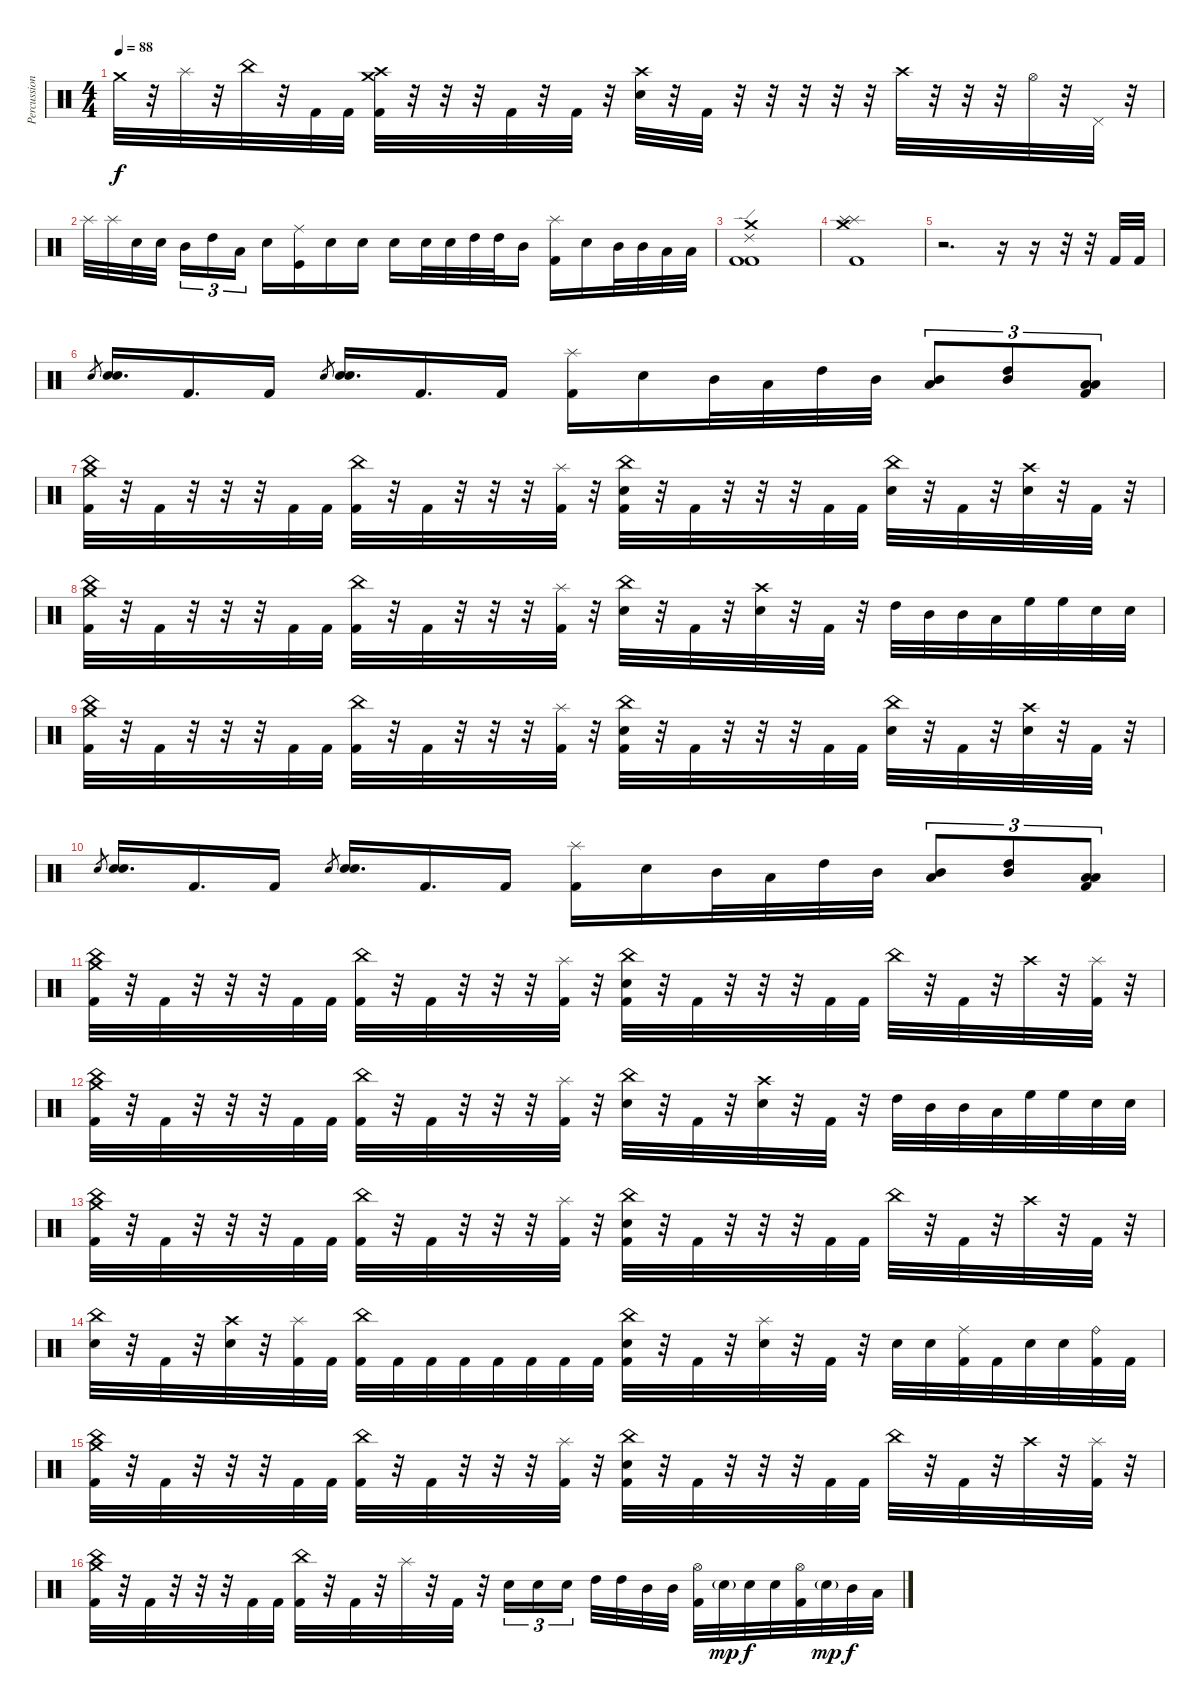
\track ("Percussion" "Percussion") {instrument percussion}
\staff {score}
\articulation defaults
\ts (4 4)
\tempo 88
\clef neutral
\ks c "Crash medium (hit)".32{dy f}
r.32 "Splash (hit)".32 r.32 "China (hit)".32 r.32 "Kick (hit) 2".32 "Kick (hit) 2".32 ("Crash high (hit)" "Crash medium (hit)" "Kick (hit) 2").32 r.32 r.32 r.32 "Kick (hit) 2".32 r.32 "Kick (hit) 2".32 r.32 ("Crash high (hit)" "Snare (hit) 2").32 r.32 "Kick (hit) 2".32 r.32 r.32 r.32 r.32 r.32 "Crash high (hit)".32 r.32 r.32 r.32 "Hi-Hat (open)".32 r.32 "Pedal Hi-Hat (hit)".32 r.32 |
"Splash (hit)".32 "Splash (hit)".32 "Snare (hit) 2".32 "Snare (hit) 2".32{beam splitsecondary} "Mid Tom (hit)".16{tu (3 2)} "High Tom (hit)".16{tu (3 2)} "Low Tom (hit)".16{tu (3 2)} "Snare (hit) 2".16 ("Ride (middle)" "Kick (hit)").16 "Snare (hit) 2".16 "Snare (hit) 2".16 "Snare (hit) 2".16 "Snare (hit) 2".32 "Snare (hit) 2".32 "High Tom (hit)".32 "High Tom (hit)".32 "Mid Tom (hit)".16 ("Splash (hit)" "Kick (hit) 2").16 "Snare (hit) 2".16 "Mid Tom (hit)".32 "Mid Tom (hit)".32 "Low Tom (hit)".32 "Low Tom (hit)".32 |
("Crash medium (hit)" "Ride (edge) 2" "Kick (hit) 2" "Kick (hit) 2").1 |
("Splash (hit)" "Splash (hit)" "Crash medium (hit)" "Kick (hit) 2").1 |
r.2{d} r.16 r.16 r.32 r.32 "Kick (hit) 2".32 "Kick (hit) 2".32 |
"Snare (hit) 2"{sl}.8{gr} ("Snare (hit) 2" "Snare (hit) 2").16{d} "Kick (hit) 2".16{d} "Kick (hit) 2".16 "Snare (hit) 2"{sl}.8{gr} ("Snare (hit) 2" "Snare (hit) 2").16{d} "Kick (hit) 2".16{d} "Kick (hit) 2".16 ("Splash (hit)" "Kick (hit) 2").16 "Snare (hit) 2".16 "Mid Tom (hit)".32 "Low Tom (hit)".32 "High Tom (hit)".32 "Mid Tom (hit)".32 ("Mid Tom (hit)" "Low Tom (hit)").8{tu (3 2)} ("Mid Tom (hit)" "High Tom (hit)").8{tu (3 2)} ("Low Floor Tom (hit)" "Low Tom (hit)" "Kick (hit) 2").8{tu (3 2)} |
("China (hit)" "Crash medium (hit)" "Kick (hit) 2").32 r.32 "Kick (hit) 2".32 r.32 r.32 r.32 "Kick (hit) 2".32 "Kick (hit) 2".32 ("China (hit)" "Kick (hit) 2").32 r.32 "Kick (hit) 2".32 r.32 r.32 r.32 ("Splash (hit)" "Kick (hit) 2").32 r.32 ("China (hit)" "Snare (hit) 2" "Kick (hit) 2").32 r.32 "Kick (hit) 2".32 r.32 r.32 r.32 "Kick (hit) 2".32 "Kick (hit) 2".32 ("China (hit)" "Snare (hit) 2").32 r.32 "Kick (hit) 2".32 r.32 ("Crash high (hit)" "Snare (hit) 2").32 r.32 "Kick (hit) 2".32 r.32 |
("China (hit)" "Crash medium (hit)" "Kick (hit) 2").32 r.32 "Kick (hit) 2".32 r.32 r.32 r.32 "Kick (hit) 2".32 "Kick (hit) 2".32 ("China (hit)" "Kick (hit) 2").32 r.32 "Kick (hit) 2".32 r.32 r.32 r.32 ("Splash (hit)" "Kick (hit) 2").32 r.32 ("China (hit)" "Snare (hit) 2").32 r.32 "Kick (hit) 2".32 r.32 ("Crash high (hit)" "Snare (hit) 2").32 r.32 "Kick (hit) 2".32 r.32 "High Tom (hit)".32 "Mid Tom (hit)".32 "Mid Tom (hit)".32 "Low Tom (hit)".32 "High Floor Tom (hit)".32 "High Floor Tom (hit)".32 "Snare (hit) 2".32 "Snare (hit) 2".32 |
("China (hit)" "Crash medium (hit)" "Kick (hit) 2").32 r.32 "Kick (hit) 2".32 r.32 r.32 r.32 "Kick (hit) 2".32 "Kick (hit) 2".32 ("China (hit)" "Kick (hit) 2").32 r.32 "Kick (hit) 2".32 r.32 r.32 r.32 ("Splash (hit)" "Kick (hit) 2").32 r.32 ("China (hit)" "Snare (hit) 2" "Kick (hit) 2").32 r.32 "Kick (hit) 2".32 r.32 r.32 r.32 "Kick (hit) 2".32 "Kick (hit) 2".32 ("China (hit)" "Snare (hit) 2").32 r.32 "Kick (hit) 2".32 r.32 ("Crash high (hit)" "Snare (hit) 2").32 r.32 "Kick (hit) 2".32 r.32 |
"Snare (hit) 2"{sl}.8{gr} ("Snare (hit) 2" "Snare (hit) 2").16{d} "Kick (hit) 2".16{d} "Kick (hit) 2".16 "Snare (hit) 2"{sl}.8{gr} ("Snare (hit) 2" "Snare (hit) 2").16{d} "Kick (hit) 2".16{d} "Kick (hit) 2".16 ("Splash (hit)" "Kick (hit) 2").16 "Snare (hit) 2".16 "Mid Tom (hit)".32 "Low Tom (hit)".32 "High Tom (hit)".32 "Mid Tom (hit)".32 ("Mid Tom (hit)" "Low Tom (hit)").8{tu (3 2)} ("Mid Tom (hit)" "High Tom (hit)").8{tu (3 2)} ("Low Floor Tom (hit)" "Low Tom (hit)" "Kick (hit) 2").8{tu (3 2)} |
("China (hit)" "Crash medium (hit)" "Kick (hit) 2").32 r.32 "Kick (hit) 2".32 r.32 r.32 r.32 "Kick (hit) 2".32 "Kick (hit) 2".32 ("China (hit)" "Kick (hit) 2").32 r.32 "Kick (hit) 2".32 r.32 r.32 r.32 ("Splash (hit)" "Kick (hit) 2").32 r.32 ("China (hit)" "Snare (hit) 2" "Kick (hit) 2").32 r.32 "Kick (hit) 2".32 r.32 r.32 r.32 "Kick (hit) 2".32 "Kick (hit) 2".32 "China (hit)".32 r.32 "Kick (hit) 2".32 r.32 "Crash high (hit)".32 r.32 ("Splash (hit)" "Kick (hit) 2").32 r.32 |
("China (hit)" "Crash medium (hit)" "Kick (hit) 2").32 r.32 "Kick (hit) 2".32 r.32 r.32 r.32 "Kick (hit) 2".32 "Kick (hit) 2".32 ("China (hit)" "Kick (hit) 2").32 r.32 "Kick (hit) 2".32 r.32 r.32 r.32 ("Splash (hit)" "Kick (hit) 2").32 r.32 ("China (hit)" "Snare (hit) 2").32 r.32 "Kick (hit) 2".32 r.32 ("Crash high (hit)" "Snare (hit) 2").32 r.32 "Kick (hit) 2".32 r.32 "High Tom (hit)".32 "Mid Tom (hit)".32 "Mid Tom (hit)".32 "Low Tom (hit)".32 "High Floor Tom (hit)".32 "High Floor Tom (hit)".32 "Snare (hit) 2".32 "Snare (hit) 2".32 |
("China (hit)" "Crash medium (hit)" "Kick (hit) 2").32 r.32 "Kick (hit) 2".32 r.32 r.32 r.32 "Kick (hit) 2".32 "Kick (hit) 2".32 ("China (hit)" "Kick (hit) 2").32 r.32 "Kick (hit) 2".32 r.32 r.32 r.32 ("Splash (hit)" "Kick (hit) 2").32 r.32 ("China (hit)" "Snare (hit) 2" "Kick (hit) 2").32 r.32 "Kick (hit) 2".32 r.32 r.32 r.32 "Kick (hit) 2".32 "Kick (hit) 2".32 "China (hit)".32 r.32 "Kick (hit) 2".32 r.32 "Crash high (hit)".32 r.32 "Kick (hit) 2".32 r.32 |
("China (hit)" "Snare (hit) 2").32 r.32 "Kick (hit) 2".32 r.32 ("Crash high (hit)" "Snare (hit) 2").32 r.32 ("Splash (hit)" "Kick (hit) 2").32 "Kick (hit) 2".32 ("China (hit)" "Kick (hit) 2").32 "Kick (hit) 2".32 "Kick (hit) 2".32 "Kick (hit) 2".32 "Kick (hit) 2".32 "Kick (hit) 2".32 "Kick (hit) 2".32 "Kick (hit) 2".32 ("China (hit)" "Snare (hit) 2" "Kick (hit) 2").32 r.32 "Kick (hit) 2".32 r.32 ("Splash (hit)" "Snare (hit) 2").32 r.32 "Kick (hit) 2".32 r.32 "Snare (hit) 2".32 "Snare (hit) 2".32 ("Ride (middle)" "Kick (hit) 2").32 "Kick (hit) 2".32 "Snare (hit) 2".32 "Snare (hit) 2".32 ("Ride (bell)" "Kick (hit) 2").32 "Kick (hit) 2".32 |
("China (hit)" "Crash medium (hit)" "Kick (hit) 2").32 r.32 "Kick (hit) 2".32 r.32 r.32 r.32 "Kick (hit) 2".32 "Kick (hit) 2".32 ("China (hit)" "Kick (hit) 2").32 r.32 "Kick (hit) 2".32 r.32 r.32 r.32 ("Splash (hit)" "Kick (hit) 2").32 r.32 ("China (hit)" "Snare (hit) 2" "Kick (hit) 2").32 r.32 "Kick (hit) 2".32 r.32 r.32 r.32 "Kick (hit) 2".32 "Kick (hit) 2".32 "China (hit)".32 r.32 "Kick (hit) 2".32 r.32 "Crash high (hit)".32 r.32 ("Splash (hit)" "Kick (hit) 2").32 r.32 |
("China (hit)" "Crash medium (hit)" "Kick (hit) 2").32 r.32 "Kick (hit) 2".32 r.32 r.32 r.32 "Kick (hit) 2".32 "Kick (hit) 2".32 ("China (hit)" "Kick (hit) 2").32 r.32 "Kick (hit) 2".32 r.32 "Splash (hit)".32 r.32 "Kick (hit) 2".32 r.32 "Snare (hit) 2".16{tu (3 2)} "Snare (hit) 2".16{tu (3 2)} "Snare (hit) 2".16{tu (3 2) beam splitsecondary} "High Tom (hit)".32 "High Tom (hit)".32 "Mid Tom (hit)".32 "Mid Tom (hit)".32 ("Hi-Hat (open)" "Kick (hit) 2").32 "Snare (hit) 2"{g}.32{dy mp} "Snare (hit) 2".32{dy f} "Snare (hit) 2".32 ("Hi-Hat (open)" "Kick (hit) 2").32 "Snare (hit) 2"{g}.32{dy mp} "Mid Tom (hit)".32{dy f} "Low Tom (hit)".32
